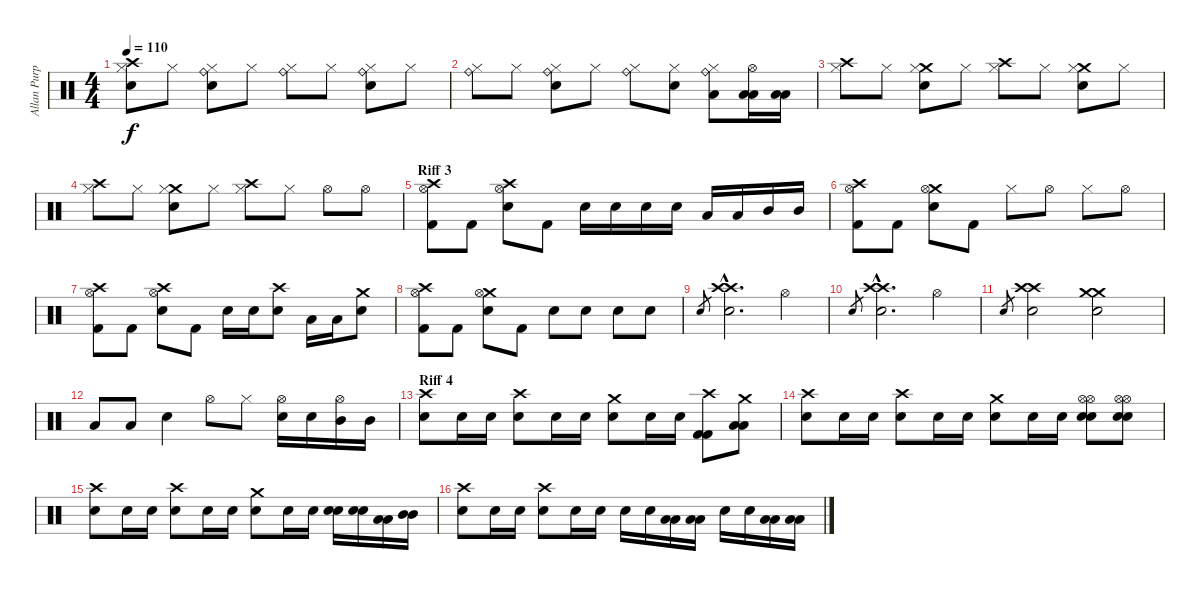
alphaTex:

\track ("Allan Purple" "Allan Purp") {instrument percussion}
\staff {score}
\articulation defaults
\ts (4 4)
\tempo 110
\clef neutral
\ks c
("Crash high (hit)" "Hi-Hat (closed)" "Snare (hit) 2").8{dy f} "Hi-Hat (closed)".8 ("Ride (bell)" "Hi-Hat (closed)" "Electric Snare (hit)").8 "Hi-Hat (closed)".8 ("Ride (bell)" "Hi-Hat (closed)").8 "Hi-Hat (closed)".8 ("Ride (bell)" "Hi-Hat (closed)" "Electric Snare (hit)").8 "Hi-Hat (closed)".8 |
("Ride (bell)" "Hi-Hat (closed)").8 "Hi-Hat (closed)".8 ("Ride (bell)" "Hi-Hat (closed)" "Electric Snare (hit)").8 "Hi-Hat (closed)".8 ("Ride (bell)" "Hi-Hat (closed)").8 ("Hi-Hat (closed)" "Electric Snare (hit)").8 ("Ride (bell)" "Hi-Hat (closed)" "Low Tom (hit)").8 ("Hi-Hat (open)" "Low Tom (hit)" "Low Tom (hit)").16 ("Low Tom (hit)" "Low Tom (hit)").16 |
("Crash high (hit)" "Hi-Hat (closed)").8 "Hi-Hat (closed)".8 ("Crash medium (hit)" "Hi-Hat (closed)" "Electric Snare (hit)").8 "Hi-Hat (closed)".8 ("Crash high (hit)" "Hi-Hat (closed)").8 "Hi-Hat (closed)".8 ("Crash medium (hit)" "Hi-Hat (closed)" "Electric Snare (hit)").8 "Hi-Hat (closed)".8 |
("Crash high (hit)" "Hi-Hat (closed)").8 "Hi-Hat (closed)".8 ("Crash medium (hit)" "Hi-Hat (closed)" "Electric Snare (hit)").8 "Hi-Hat (closed)".8 ("Crash high (hit)" "Hi-Hat (closed)").8 "Hi-Hat (closed)".8 "Hi-Hat (open)".8 "Hi-Hat (open)".8 |
\section ("" "Riff 3")
("Crash high (hit)" "Hi-Hat (open)" "Kick (hit) 2").8 "Kick (hit) 2".8 ("Crash high (hit)" "Hi-Hat (open)" "Electric Snare (hit)").8 "Kick (hit) 2".8 "Electric Snare (hit)".16 "Electric Snare (hit)".16 "Snare (hit) 2".16 "Snare (hit) 2".16 "Low Tom (hit)".16 "Low Tom (hit)".16 "Mid Tom (hit)".16 "Mid Tom (hit)".16 |
("Crash high (hit)" "Hi-Hat (open)" "Kick (hit) 2").8 "Kick (hit) 2".8 ("Crash medium (hit)" "Hi-Hat (open)" "Electric Snare (hit)").8 "Kick (hit) 2".8 "Hi-Hat (closed)".8 "Hi-Hat (open)".8 "Hi-Hat (closed)".8 "Hi-Hat (open)".8 |
("Crash high (hit)" "Hi-Hat (open)" "Kick (hit) 2").8 "Kick (hit) 2".8 ("Crash high (hit)" "Hi-Hat (open)" "Electric Snare (hit)").8 "Kick (hit) 2".8 "Electric Snare (hit)".16 "Electric Snare (hit)".16 ("Crash high (hit)" "Snare (hit) 2").8 "Low Tom (hit)".16 "Low Tom (hit)".16 ("Crash medium (hit)" "Electric Snare (hit)").8 |
("Crash high (hit)" "Hi-Hat (open)" "Kick (hit) 2").8 "Kick (hit) 2".8 ("Crash medium (hit)" "Hi-Hat (open)" "Electric Snare (hit)").8 "Kick (hit) 2".8 "Electric Snare (hit)".8 "Electric Snare (hit)".8 "Snare (hit) 2".8 "Snare (hit) 2".8 |
"Electric Snare (hit)".8{gr} ("Crash high (hit)"{hac} "Crash high (hit)"{hac} "Electric Snare (hit)"{hac}).2{d} "Hi-Hat (open)".4 |
"Electric Snare (hit)".8{gr} ("Crash high (hit)"{hac} "Crash high (hit)"{hac} "Electric Snare (hit)"{hac}).2{d} "Hi-Hat (open)".4 |
"Electric Snare (hit)".8{gr} ("Crash high (hit)" "Crash high (hit)" "Electric Snare (hit)").2 ("Crash medium (hit)" "Crash medium (hit)" "Snare (hit) 2").2 |
"Low Tom (hit)".8 "Low Tom (hit)".8 "Electric Snare (hit)".4 "Hi-Hat (open)".8 "Hi-Hat (closed)".8 ("Hi-Hat (open)" "Electric Snare (hit)").16 "Electric Snare (hit)".16 ("Hi-Hat (open)" "Mid Tom (hit)").16 "Mid Tom (hit)".16 |
\section ("" "Riff 4")
("Crash high (hit)" "Electric Snare (hit)").8 "Electric Snare (hit)".16 "Electric Snare (hit)".16 ("Crash high (hit)" "Electric Snare (hit)").8 "Electric Snare (hit)".16 "Electric Snare (hit)".16 ("Crash medium (hit)" "Electric Snare (hit)").8 "Electric Snare (hit)".16 "Electric Snare (hit)".16 ("Crash high (hit)" "Kick (hit) 2" "Kick (hit) 2").8 ("Crash medium (hit)" "Low Tom (hit)" "Low Tom (hit)").8 |
("Crash high (hit)" "Electric Snare (hit)").8 "Electric Snare (hit)".16 "Electric Snare (hit)".16 ("Crash high (hit)" "Electric Snare (hit)").8 "Electric Snare (hit)".16 "Electric Snare (hit)".16 ("Crash medium (hit)" "Electric Snare (hit)").8 "Electric Snare (hit)".16 "Electric Snare (hit)".16 ("Hi-Hat (open)" "Hi-Hat (open)" "Snare (hit) 2" "Snare (hit) 2").8 ("Hi-Hat (open)" "Hi-Hat (open)" "Snare (hit) 2" "Snare (hit) 2").8 |
("Crash high (hit)" "Electric Snare (hit)").8 "Electric Snare (hit)".16 "Electric Snare (hit)".16 ("Crash high (hit)" "Electric Snare (hit)").8 "Electric Snare (hit)".16 "Electric Snare (hit)".16 ("Crash medium (hit)" "Electric Snare (hit)").8 "Electric Snare (hit)".16 "Electric Snare (hit)".16 ("Electric Snare (hit)" "Electric Snare (hit)").16 ("Snare (hit) 2" "Snare (hit) 2").16 ("Low Tom (hit)" "Low Tom (hit)").16 ("Mid Tom (hit)" "Mid Tom (hit)").16 |
("Crash high (hit)" "Electric Snare (hit)").8 "Electric Snare (hit)".16 "Electric Snare (hit)".16 ("Crash high (hit)" "Electric Snare (hit)").8 "Electric Snare (hit)".16 "Electric Snare (hit)".16 "Electric Snare (hit)".16 "Electric Snare (hit)".16 ("Low Tom (hit)" "Low Tom (hit)").16 ("Low Tom (hit)" "Low Tom (hit)").16 "Electric Snare (hit)".16 "Electric Snare (hit)".16 ("Low Tom (hit)" "Low Tom (hit)").16 ("Low Tom (hit)" "Low Tom (hit)").16
